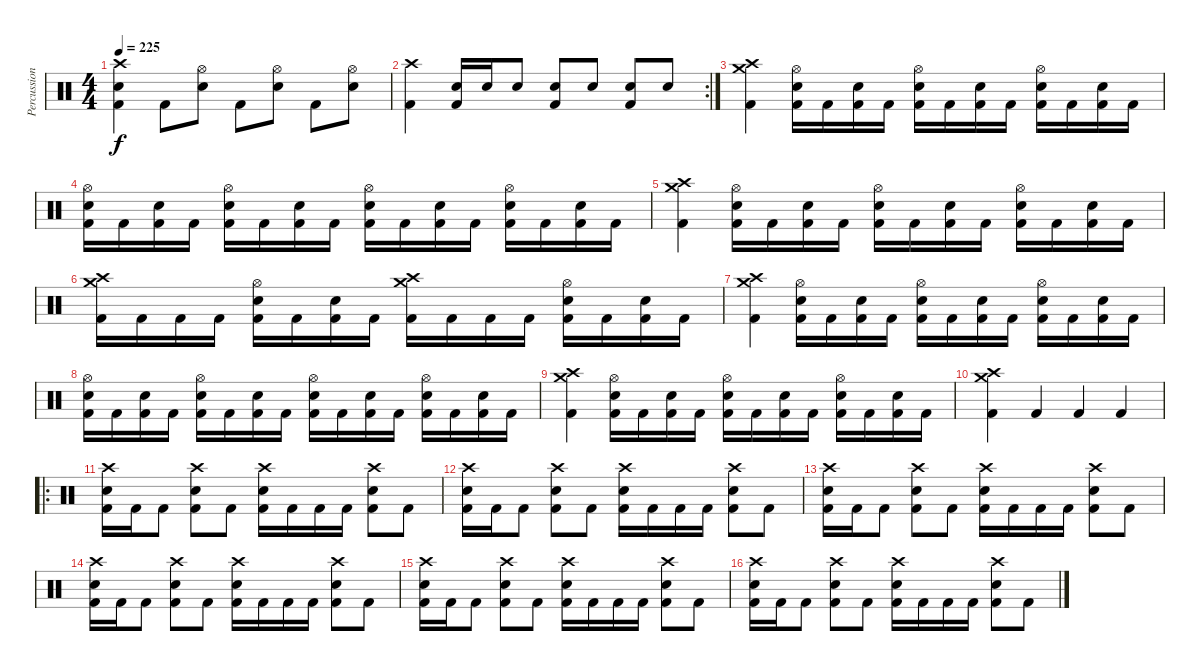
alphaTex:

\track ("Percussion" "Percussion") {instrument percussion}
\staff {score}
\articulation defaults
\ts (4 4)
\tempo 225
\clef neutral
\ks c
("Crash high (hit)" "Snare (hit) 2" "Kick (hit) 2").4{dy f} "Kick (hit) 2".8 ("Hi-Hat (open)" "Snare (hit) 2").8 "Kick (hit) 2".8 ("Hi-Hat (open)" "Snare (hit) 2").8 "Kick (hit) 2".8 ("Hi-Hat (open)" "Snare (hit) 2").8 |
\rc 2
("Crash high (hit)" "Kick (hit) 2").4 ("Snare (hit) 2" "Kick (hit) 2").16 "Snare (hit) 2".16 "Snare (hit) 2".8 ("Snare (hit) 2" "Kick (hit) 2").8 "Snare (hit) 2".8 ("Snare (hit) 2" "Kick (hit) 2").8 "Snare (hit) 2".8 |
("Crash high (hit)" "Crash medium (hit)" "Kick (hit) 2").4 ("Hi-Hat (open)" "Snare (hit) 2" "Kick (hit) 2").16 "Kick (hit) 2".16 ("Snare (hit) 2" "Kick (hit) 2").16 "Kick (hit) 2".16 ("Hi-Hat (open)" "Snare (hit) 2" "Kick (hit) 2").16 "Kick (hit) 2".16 ("Snare (hit) 2" "Kick (hit) 2").16 "Kick (hit) 2".16 ("Hi-Hat (open)" "Snare (hit) 2" "Kick (hit) 2").16 "Kick (hit) 2".16 ("Snare (hit) 2" "Kick (hit) 2").16 "Kick (hit) 2".16 |
("Hi-Hat (open)" "Snare (hit) 2" "Kick (hit) 2").16 "Kick (hit) 2".16 ("Snare (hit) 2" "Kick (hit) 2").16 "Kick (hit) 2".16 ("Hi-Hat (open)" "Snare (hit) 2" "Kick (hit) 2").16 "Kick (hit) 2".16 ("Snare (hit) 2" "Kick (hit) 2").16 "Kick (hit) 2".16 ("Hi-Hat (open)" "Snare (hit) 2" "Kick (hit) 2").16 "Kick (hit) 2".16 ("Snare (hit) 2" "Kick (hit) 2").16 "Kick (hit) 2".16 ("Hi-Hat (open)" "Snare (hit) 2" "Kick (hit) 2").16 "Kick (hit) 2".16 ("Snare (hit) 2" "Kick (hit) 2").16 "Kick (hit) 2".16 |
("Crash high (hit)" "Crash medium (hit)" "Kick (hit) 2").4 ("Hi-Hat (open)" "Snare (hit) 2" "Kick (hit) 2").16 "Kick (hit) 2".16 ("Snare (hit) 2" "Kick (hit) 2").16 "Kick (hit) 2".16 ("Hi-Hat (open)" "Snare (hit) 2" "Kick (hit) 2").16 "Kick (hit) 2".16 ("Snare (hit) 2" "Kick (hit) 2").16 "Kick (hit) 2".16 ("Hi-Hat (open)" "Snare (hit) 2" "Kick (hit) 2").16 "Kick (hit) 2".16 ("Snare (hit) 2" "Kick (hit) 2").16 "Kick (hit) 2".16 |
("Crash high (hit)" "Crash medium (hit)" "Kick (hit) 2").16 "Kick (hit) 2".16 "Kick (hit) 2".16 "Kick (hit) 2".16 ("Hi-Hat (open)" "Snare (hit) 2" "Kick (hit) 2").16 "Kick (hit) 2".16 ("Snare (hit) 2" "Kick (hit) 2").16 "Kick (hit) 2".16 ("Crash high (hit)" "Crash medium (hit)" "Kick (hit) 2").16 "Kick (hit) 2".16 "Kick (hit) 2".16 "Kick (hit) 2".16 ("Hi-Hat (open)" "Snare (hit) 2" "Kick (hit) 2").16 "Kick (hit) 2".16 ("Snare (hit) 2" "Kick (hit) 2").16 "Kick (hit) 2".16 |
("Crash high (hit)" "Crash medium (hit)" "Kick (hit) 2").4 ("Hi-Hat (open)" "Snare (hit) 2" "Kick (hit) 2").16 "Kick (hit) 2".16 ("Snare (hit) 2" "Kick (hit) 2").16 "Kick (hit) 2".16 ("Hi-Hat (open)" "Snare (hit) 2" "Kick (hit) 2").16 "Kick (hit) 2".16 ("Snare (hit) 2" "Kick (hit) 2").16 "Kick (hit) 2".16 ("Hi-Hat (open)" "Snare (hit) 2" "Kick (hit) 2").16 "Kick (hit) 2".16 ("Snare (hit) 2" "Kick (hit) 2").16 "Kick (hit) 2".16 |
("Hi-Hat (open)" "Snare (hit) 2" "Kick (hit) 2").16 "Kick (hit) 2".16 ("Snare (hit) 2" "Kick (hit) 2").16 "Kick (hit) 2".16 ("Hi-Hat (open)" "Snare (hit) 2" "Kick (hit) 2").16 "Kick (hit) 2".16 ("Snare (hit) 2" "Kick (hit) 2").16 "Kick (hit) 2".16 ("Hi-Hat (open)" "Snare (hit) 2" "Kick (hit) 2").16 "Kick (hit) 2".16 ("Snare (hit) 2" "Kick (hit) 2").16 "Kick (hit) 2".16 ("Hi-Hat (open)" "Snare (hit) 2" "Kick (hit) 2").16 "Kick (hit) 2".16 ("Snare (hit) 2" "Kick (hit) 2").16 "Kick (hit) 2".16 |
("Crash high (hit)" "Crash medium (hit)" "Kick (hit) 2").4 ("Hi-Hat (open)" "Snare (hit) 2" "Kick (hit) 2").16 "Kick (hit) 2".16 ("Snare (hit) 2" "Kick (hit) 2").16 "Kick (hit) 2".16 ("Hi-Hat (open)" "Snare (hit) 2" "Kick (hit) 2").16 "Kick (hit) 2".16 ("Snare (hit) 2" "Kick (hit) 2").16 "Kick (hit) 2".16 ("Hi-Hat (open)" "Snare (hit) 2" "Kick (hit) 2").16 "Kick (hit) 2".16 ("Snare (hit) 2" "Kick (hit) 2").16 "Kick (hit) 2".16 |
("Crash high (hit)" "Crash medium (hit)" "Kick (hit) 2").4 "Kick (hit) 2".4 "Kick (hit) 2".4 "Kick (hit) 2".4 |
\ro
("Crash high (hit)" "Snare (hit) 2" "Kick (hit) 2").16 "Kick (hit) 2".16 "Kick (hit) 2".8 ("Crash high (hit)" "Snare (hit) 2" "Kick (hit) 2").8 "Kick (hit) 2".8 ("Crash high (hit)" "Snare (hit) 2" "Kick (hit) 2").16 "Kick (hit) 2".16 "Kick (hit) 2".16 "Kick (hit) 2".16 ("Crash high (hit)" "Snare (hit) 2" "Kick (hit) 2").8 "Kick (hit) 2".8 |
("Crash high (hit)" "Snare (hit) 2" "Kick (hit) 2").16 "Kick (hit) 2".16 "Kick (hit) 2".8 ("Crash high (hit)" "Snare (hit) 2" "Kick (hit) 2").8 "Kick (hit) 2".8 ("Crash high (hit)" "Snare (hit) 2" "Kick (hit) 2").16 "Kick (hit) 2".16 "Kick (hit) 2".16 "Kick (hit) 2".16 ("Crash high (hit)" "Snare (hit) 2" "Kick (hit) 2").8 "Kick (hit) 2".8 |
("Crash high (hit)" "Snare (hit) 2" "Kick (hit) 2").16 "Kick (hit) 2".16 "Kick (hit) 2".8 ("Crash high (hit)" "Snare (hit) 2" "Kick (hit) 2").8 "Kick (hit) 2".8 ("Crash high (hit)" "Snare (hit) 2" "Kick (hit) 2").16 "Kick (hit) 2".16 "Kick (hit) 2".16 "Kick (hit) 2".16 ("Crash high (hit)" "Snare (hit) 2" "Kick (hit) 2").8 "Kick (hit) 2".8 |
("Crash high (hit)" "Snare (hit) 2" "Kick (hit) 2").16 "Kick (hit) 2".16 "Kick (hit) 2".8 ("Crash high (hit)" "Snare (hit) 2" "Kick (hit) 2").8 "Kick (hit) 2".8 ("Crash high (hit)" "Snare (hit) 2" "Kick (hit) 2").16 "Kick (hit) 2".16 "Kick (hit) 2".16 "Kick (hit) 2".16 ("Crash high (hit)" "Snare (hit) 2" "Kick (hit) 2").8 "Kick (hit) 2".8 |
("Crash high (hit)" "Snare (hit) 2" "Kick (hit) 2").16 "Kick (hit) 2".16 "Kick (hit) 2".8 ("Crash high (hit)" "Snare (hit) 2" "Kick (hit) 2").8 "Kick (hit) 2".8 ("Crash high (hit)" "Snare (hit) 2" "Kick (hit) 2").16 "Kick (hit) 2".16 "Kick (hit) 2".16 "Kick (hit) 2".16 ("Crash high (hit)" "Snare (hit) 2" "Kick (hit) 2").8 "Kick (hit) 2".8 |
("Crash high (hit)" "Snare (hit) 2" "Kick (hit) 2").16 "Kick (hit) 2".16 "Kick (hit) 2".8 ("Crash high (hit)" "Snare (hit) 2" "Kick (hit) 2").8 "Kick (hit) 2".8 ("Crash high (hit)" "Snare (hit) 2" "Kick (hit) 2").16 "Kick (hit) 2".16 "Kick (hit) 2".16 "Kick (hit) 2".16 ("Crash high (hit)" "Snare (hit) 2" "Kick (hit) 2").8 "Kick (hit) 2".8
